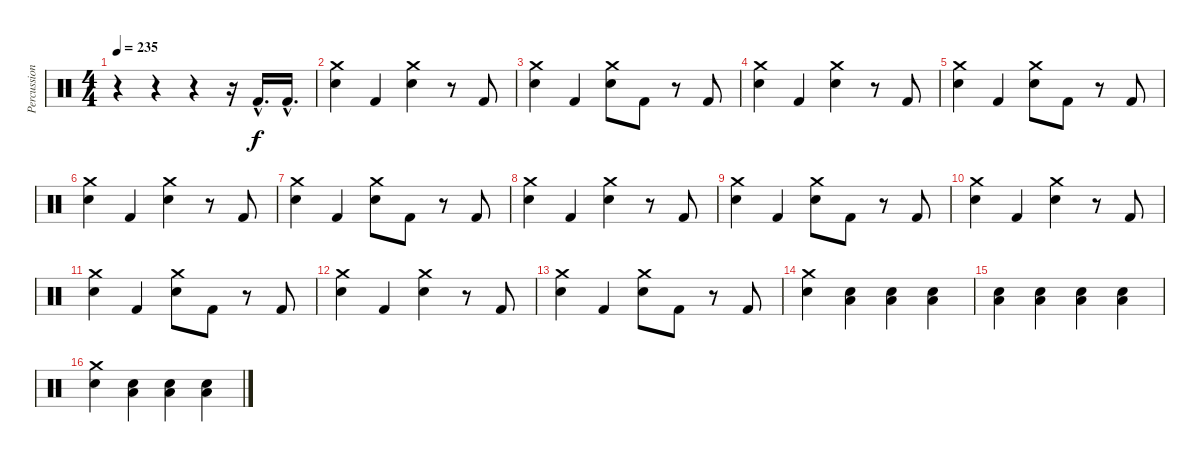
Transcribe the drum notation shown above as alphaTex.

\track ("Percussions" "Percussion") {instrument percussion}
\staff {score}
\articulation defaults
\ts (4 4)
\tempo 235
\clef neutral
\ks c
r.4{dy f} r.4 r.4 r.16 "Kick (hit) 2"{hac}.16{d} "Kick (hit) 2"{hac}.16{d} |
("Crash medium (hit)" "Snare (hit) 2").4 "Kick (hit) 2".4 ("Crash medium (hit)" "Snare (hit) 2").4 r.8 "Kick (hit) 2".8 |
("Crash medium (hit)" "Snare (hit) 2").4 "Kick (hit) 2".4 ("Crash medium (hit)" "Snare (hit) 2").8 "Kick (hit) 2".8 r.8 "Kick (hit) 2".8 |
("Crash medium (hit)" "Snare (hit) 2").4 "Kick (hit) 2".4 ("Crash medium (hit)" "Snare (hit) 2").4 r.8 "Kick (hit) 2".8 |
("Crash medium (hit)" "Snare (hit) 2").4 "Kick (hit) 2".4 ("Crash medium (hit)" "Snare (hit) 2").8 "Kick (hit) 2".8 r.8 "Kick (hit) 2".8 |
("Crash medium (hit)" "Snare (hit) 2").4 "Kick (hit) 2".4 ("Crash medium (hit)" "Snare (hit) 2").4 r.8 "Kick (hit) 2".8 |
("Crash medium (hit)" "Snare (hit) 2").4 "Kick (hit) 2".4 ("Crash medium (hit)" "Snare (hit) 2").8 "Kick (hit) 2".8 r.8 "Kick (hit) 2".8 |
("Crash medium (hit)" "Snare (hit) 2").4 "Kick (hit) 2".4 ("Crash medium (hit)" "Snare (hit) 2").4 r.8 "Kick (hit) 2".8 |
("Crash medium (hit)" "Snare (hit) 2").4 "Kick (hit) 2".4 ("Crash medium (hit)" "Snare (hit) 2").8 "Kick (hit) 2".8 r.8 "Kick (hit) 2".8 |
("Crash medium (hit)" "Snare (hit) 2").4 "Kick (hit) 2".4 ("Crash medium (hit)" "Snare (hit) 2").4 r.8 "Kick (hit) 2".8 |
("Crash medium (hit)" "Snare (hit) 2").4 "Kick (hit) 2".4 ("Crash medium (hit)" "Snare (hit) 2").8 "Kick (hit) 2".8 r.8 "Kick (hit) 2".8 |
("Crash medium (hit)" "Snare (hit) 2").4 "Kick (hit) 2".4 ("Crash medium (hit)" "Snare (hit) 2").4 r.8 "Kick (hit) 2".8 |
("Crash medium (hit)" "Snare (hit) 2").4 "Kick (hit) 2".4 ("Crash medium (hit)" "Snare (hit) 2").8 "Kick (hit) 2".8 r.8 "Kick (hit) 2".8 |
("Crash medium (hit)" "Snare (hit) 2").4 ("Low Tom (hit)" "Snare (hit) 2").4 ("Low Tom (hit)" "Snare (hit) 2").4 ("Low Tom (hit)" "Snare (hit) 2").4 |
("Low Tom (hit)" "Snare (hit) 2").4 ("Low Tom (hit)" "Snare (hit) 2").4 ("Low Tom (hit)" "Snare (hit) 2").4 ("Low Tom (hit)" "Snare (hit) 2").4 |
("Crash medium (hit)" "Snare (hit) 2").4 ("Low Tom (hit)" "Snare (hit) 2").4 ("Low Tom (hit)" "Snare (hit) 2").4 ("Low Tom (hit)" "Snare (hit) 2").4
